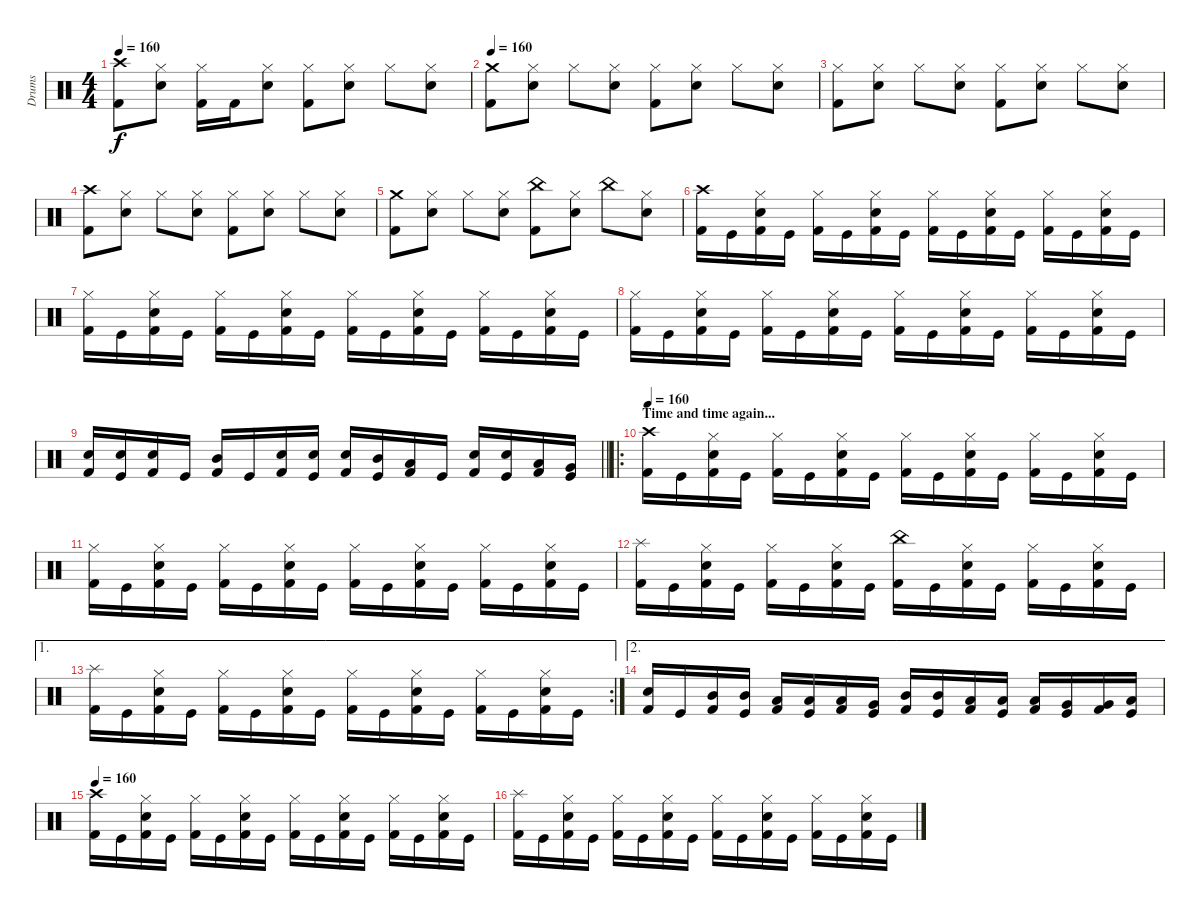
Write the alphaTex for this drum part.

\track ("Drums" "Drums") {instrument percussion}
\staff {score}
\articulation defaults
\ts (4 4)
\tempo 160
\clef neutral
\ks c
("Crash high (hit)" "Kick (hit) 2").8{dy f} ("Hi-Hat (closed)" "Snare (hit) 2").8 ("Hi-Hat (closed)" "Kick (hit) 2").16 "Kick (hit) 2".16 ("Hi-Hat (closed)" "Snare (hit) 2").8 ("Hi-Hat (closed)" "Kick (hit) 2").8 ("Hi-Hat (closed)" "Snare (hit) 2").8 "Hi-Hat (closed)".8 ("Hi-Hat (closed)" "Snare (hit) 2").8 |
\tempo 160
("Crash medium (hit)" "Kick (hit) 2").8 ("Hi-Hat (closed)" "Snare (hit) 2").8 "Hi-Hat (closed)".8 ("Hi-Hat (closed)" "Snare (hit) 2").8 ("Hi-Hat (closed)" "Kick (hit) 2").8 ("Hi-Hat (closed)" "Snare (hit) 2").8 "Hi-Hat (closed)".8 ("Hi-Hat (closed)" "Snare (hit) 2").8 |
("Hi-Hat (closed)" "Kick (hit) 2").8 ("Hi-Hat (closed)" "Snare (hit) 2").8 "Hi-Hat (closed)".8 ("Hi-Hat (closed)" "Snare (hit) 2").8 ("Hi-Hat (closed)" "Kick (hit) 2").8 ("Hi-Hat (closed)" "Snare (hit) 2").8 "Hi-Hat (closed)".8 ("Hi-Hat (closed)" "Snare (hit) 2").8 |
("Crash high (hit)" "Kick (hit) 2").8 ("Hi-Hat (closed)" "Snare (hit) 2").8 "Hi-Hat (closed)".8 ("Hi-Hat (closed)" "Snare (hit) 2").8 ("Hi-Hat (closed)" "Kick (hit) 2").8 ("Hi-Hat (closed)" "Snare (hit) 2").8 "Hi-Hat (closed)".8 ("Hi-Hat (closed)" "Snare (hit) 2").8 |
("Crash medium (hit)" "Kick (hit) 2").8 ("Hi-Hat (closed)" "Snare (hit) 2").8 "Hi-Hat (closed)".8 ("Hi-Hat (closed)" "Snare (hit) 2").8 ("China (hit)" "Kick (hit) 2").8 ("Hi-Hat (closed)" "Snare (hit) 2").8 "China (hit)".8 ("Hi-Hat (closed)" "Snare (hit) 2").8 |
("Crash high (hit)" "Kick (hit) 2").16 "Kick (hit)".16 ("Hi-Hat (closed)" "Snare (hit) 2" "Kick (hit) 2").16 "Kick (hit)".16 ("Hi-Hat (closed)" "Kick (hit) 2").16 "Kick (hit)".16 ("Hi-Hat (closed)" "Snare (hit) 2" "Kick (hit) 2").16 "Kick (hit)".16 ("Hi-Hat (closed)" "Kick (hit) 2").16 "Kick (hit)".16 ("Hi-Hat (closed)" "Snare (hit) 2" "Kick (hit) 2").16 "Kick (hit)".16 ("Hi-Hat (closed)" "Kick (hit) 2").16 "Kick (hit)".16 ("Hi-Hat (closed)" "Snare (hit) 2" "Kick (hit) 2").16 "Kick (hit)".16 |
("Hi-Hat (closed)" "Kick (hit) 2").16 "Kick (hit)".16 ("Hi-Hat (closed)" "Snare (hit) 2" "Kick (hit) 2").16 "Kick (hit)".16 ("Hi-Hat (closed)" "Kick (hit) 2").16 "Kick (hit)".16 ("Hi-Hat (closed)" "Snare (hit) 2" "Kick (hit) 2").16 "Kick (hit)".16 ("Hi-Hat (closed)" "Kick (hit) 2").16 "Kick (hit)".16 ("Hi-Hat (closed)" "Snare (hit) 2" "Kick (hit) 2").16 "Kick (hit)".16 ("Hi-Hat (closed)" "Kick (hit) 2").16 "Kick (hit)".16 ("Hi-Hat (closed)" "Snare (hit) 2" "Kick (hit) 2").16 "Kick (hit)".16 |
("Hi-Hat (closed)" "Kick (hit) 2").16 "Kick (hit)".16 ("Hi-Hat (closed)" "Snare (hit) 2" "Kick (hit) 2").16 "Kick (hit)".16 ("Hi-Hat (closed)" "Kick (hit) 2").16 "Kick (hit)".16 ("Hi-Hat (closed)" "Snare (hit) 2" "Kick (hit) 2").16 "Kick (hit)".16 ("Hi-Hat (closed)" "Kick (hit) 2").16 "Kick (hit)".16 ("Hi-Hat (closed)" "Snare (hit) 2" "Kick (hit) 2").16 "Kick (hit)".16 ("Hi-Hat (closed)" "Kick (hit) 2").16 "Kick (hit)".16 ("Hi-Hat (closed)" "Snare (hit) 2" "Kick (hit) 2").16 "Kick (hit)".16 |
\barLineRight lightlight
("Snare (hit) 2" "Kick (hit) 2").16 ("Snare (hit) 2" "Kick (hit)").16 ("Snare (hit) 2" "Kick (hit) 2").16 "Kick (hit)".16 ("Mid Tom (hit)" "Kick (hit) 2").16 "Kick (hit)".16 ("Snare (hit) 2" "Kick (hit) 2").16 ("Snare (hit) 2" "Kick (hit)").16 ("Snare (hit) 2" "Kick (hit) 2").16 ("Mid Tom (hit)" "Kick (hit)").16 ("Low Tom (hit)" "Kick (hit) 2").16 "Kick (hit)".16 ("Snare (hit) 2" "Kick (hit) 2").16 ("Snare (hit) 2" "Kick (hit)").16 ("Low Tom (hit)" "Kick (hit) 2").16 ("Very Low Tom (hit)" "Kick (hit)").16 |
\ro
\section ("" "Time and time again...")
\tempo 160
("Crash high (hit)" "Kick (hit) 2").16 "Kick (hit)".16 ("Hi-Hat (closed)" "Snare (hit) 2" "Kick (hit) 2").16 "Kick (hit)".16 ("Hi-Hat (closed)" "Kick (hit) 2").16 "Kick (hit)".16 ("Hi-Hat (closed)" "Snare (hit) 2" "Kick (hit) 2").16 "Kick (hit)".16 ("Hi-Hat (closed)" "Kick (hit) 2").16 "Kick (hit)".16 ("Hi-Hat (closed)" "Snare (hit) 2" "Kick (hit) 2").16 "Kick (hit)".16 ("Hi-Hat (closed)" "Kick (hit) 2").16 "Kick (hit)".16 ("Hi-Hat (closed)" "Snare (hit) 2" "Kick (hit) 2").16 "Kick (hit)".16 |
("Hi-Hat (closed)" "Kick (hit) 2").16 "Kick (hit)".16 ("Hi-Hat (closed)" "Snare (hit) 2" "Kick (hit) 2").16 "Kick (hit)".16 ("Hi-Hat (closed)" "Kick (hit) 2").16 "Kick (hit)".16 ("Hi-Hat (closed)" "Snare (hit) 2" "Kick (hit) 2").16 "Kick (hit)".16 ("Hi-Hat (closed)" "Kick (hit) 2").16 "Kick (hit)".16 ("Hi-Hat (closed)" "Snare (hit) 2" "Kick (hit) 2").16 "Kick (hit)".16 ("Hi-Hat (closed)" "Kick (hit) 2").16 "Kick (hit)".16 ("Hi-Hat (closed)" "Snare (hit) 2" "Kick (hit) 2").16 "Kick (hit)".16 |
("Splash (hit)" "Kick (hit) 2").16 "Kick (hit)".16 ("Hi-Hat (closed)" "Snare (hit) 2" "Kick (hit) 2").16 "Kick (hit)".16 ("Hi-Hat (closed)" "Kick (hit) 2").16 "Kick (hit)".16 ("Hi-Hat (closed)" "Snare (hit) 2" "Kick (hit) 2").16 "Kick (hit)".16 ("China (hit)" "Kick (hit) 2").16 "Kick (hit)".16 ("Hi-Hat (closed)" "Snare (hit) 2" "Kick (hit) 2").16 "Kick (hit)".16 ("Hi-Hat (closed)" "Kick (hit) 2").16 "Kick (hit)".16 ("Hi-Hat (closed)" "Snare (hit) 2" "Kick (hit) 2").16 "Kick (hit)".16 |
\ae 1
\rc 2
("Splash (hit)" "Kick (hit) 2").16 "Kick (hit)".16 ("Hi-Hat (closed)" "Snare (hit) 2" "Kick (hit) 2").16 "Kick (hit)".16 ("Hi-Hat (closed)" "Kick (hit) 2").16 "Kick (hit)".16 ("Hi-Hat (closed)" "Snare (hit) 2" "Kick (hit) 2").16 "Kick (hit)".16 ("Hi-Hat (closed)" "Kick (hit) 2").16 "Kick (hit)".16 ("Hi-Hat (closed)" "Snare (hit) 2" "Kick (hit) 2").16 "Kick (hit)".16 ("Hi-Hat (closed)" "Kick (hit) 2").16 "Kick (hit)".16 ("Hi-Hat (closed)" "Snare (hit) 2" "Kick (hit) 2").16 "Kick (hit)".16 |
\ae 2
("Snare (hit) 2" "Kick (hit) 2").16 "Kick (hit)".16 ("Mid Tom (hit)" "Kick (hit) 2").16 ("Mid Tom (hit)" "Kick (hit)").16 ("Low Tom (hit)" "Kick (hit) 2").16 ("Low Tom (hit)" "Kick (hit)").16 ("Low Tom (hit)" "Kick (hit) 2").16 ("Very Low Tom (hit)" "Kick (hit)").16 ("Mid Tom (hit)" "Kick (hit) 2").16 ("Mid Tom (hit)" "Kick (hit)").16 ("Low Tom (hit)" "Kick (hit) 2").16 ("Low Tom (hit)" "Kick (hit)").16 ("Low Tom (hit)" "Kick (hit) 2").16 ("Very Low Tom (hit)" "Kick (hit)").16 ("Very Low Tom (hit)" "Kick (hit) 2").16 ("Low Floor Tom (hit)" "Kick (hit)").16 |
\tempo 160
("Crash high (hit)" "Kick (hit) 2").16 "Kick (hit)".16 ("Hi-Hat (closed)" "Snare (hit) 2" "Kick (hit) 2").16 "Kick (hit)".16 ("Hi-Hat (closed)" "Kick (hit) 2").16 "Kick (hit)".16 ("Hi-Hat (closed)" "Snare (hit) 2" "Kick (hit) 2").16 "Kick (hit)".16 ("Hi-Hat (closed)" "Kick (hit) 2").16 "Kick (hit)".16 ("Hi-Hat (closed)" "Snare (hit) 2" "Kick (hit) 2").16 "Kick (hit)".16 ("Hi-Hat (closed)" "Kick (hit) 2").16 "Kick (hit)".16 ("Hi-Hat (closed)" "Snare (hit) 2" "Kick (hit) 2").16 "Kick (hit)".16 |
("Splash (hit)" "Kick (hit) 2").16 "Kick (hit)".16 ("Hi-Hat (closed)" "Snare (hit) 2" "Kick (hit) 2").16 "Kick (hit)".16 ("Hi-Hat (closed)" "Kick (hit) 2").16 "Kick (hit)".16 ("Hi-Hat (closed)" "Snare (hit) 2" "Kick (hit) 2").16 "Kick (hit)".16 ("Hi-Hat (closed)" "Kick (hit) 2").16 "Kick (hit)".16 ("Hi-Hat (closed)" "Snare (hit) 2" "Kick (hit) 2").16 "Kick (hit)".16 ("Hi-Hat (closed)" "Kick (hit) 2").16 "Kick (hit)".16 ("Hi-Hat (closed)" "Snare (hit) 2" "Kick (hit) 2").16 "Kick (hit)".16
